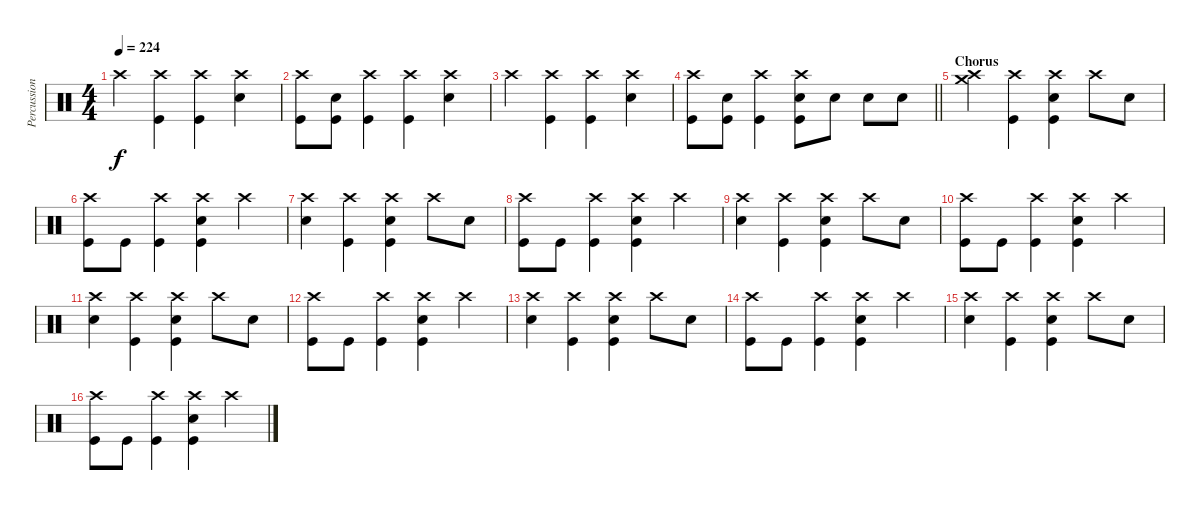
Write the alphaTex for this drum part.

\track ("Percussion" "Percussion") {instrument percussion}
\staff {score}
\articulation defaults
\ts (4 4)
\tempo 224
\clef neutral
\ks c "Crash high (hit)".4{dy f}
("Crash high (hit)" "Kick (hit)").4 ("Crash high (hit)" "Kick (hit)").4 ("Crash high (hit)" "Electric Snare (hit)").4 |
("Crash high (hit)" "Kick (hit)").8 ("Electric Snare (hit)" "Kick (hit)").8 ("Crash high (hit)" "Kick (hit)").4 ("Crash high (hit)" "Kick (hit)").4 ("Crash high (hit)" "Electric Snare (hit)").4 |
"Crash high (hit)".4 ("Crash high (hit)" "Kick (hit)").4 ("Crash high (hit)" "Kick (hit)").4 ("Crash high (hit)" "Electric Snare (hit)").4 |
\barLineRight lightlight
("Crash high (hit)" "Kick (hit)").8 ("Electric Snare (hit)" "Kick (hit)").8 ("Crash high (hit)" "Kick (hit)").4 ("Crash high (hit)" "Electric Snare (hit)" "Kick (hit)").8 "Electric Snare (hit)".8 "Electric Snare (hit)".8 "Electric Snare (hit)".8 |
\section ("" "Chorus")
("Crash high (hit)" "Crash medium (hit)").4 ("Crash high (hit)" "Kick (hit)").4 ("Crash high (hit)" "Electric Snare (hit)" "Kick (hit)").4 "Crash high (hit)".8 "Electric Snare (hit)".8 |
("Crash high (hit)" "Kick (hit)").8 "Kick (hit)".8 ("Crash high (hit)" "Kick (hit)").4 ("Crash high (hit)" "Electric Snare (hit)" "Kick (hit)").4 "Crash high (hit)".4 |
("Crash high (hit)" "Electric Snare (hit)").4 ("Crash high (hit)" "Kick (hit)").4 ("Crash high (hit)" "Electric Snare (hit)" "Kick (hit)").4 "Crash high (hit)".8 "Electric Snare (hit)".8 |
("Crash high (hit)" "Kick (hit)").8 "Kick (hit)".8 ("Crash high (hit)" "Kick (hit)").4 ("Crash high (hit)" "Electric Snare (hit)" "Kick (hit)").4 "Crash high (hit)".4 |
("Crash high (hit)" "Electric Snare (hit)").4 ("Crash high (hit)" "Kick (hit)").4 ("Crash high (hit)" "Electric Snare (hit)" "Kick (hit)").4 "Crash high (hit)".8 "Electric Snare (hit)".8 |
("Crash high (hit)" "Kick (hit)").8 "Kick (hit)".8 ("Crash high (hit)" "Kick (hit)").4 ("Crash high (hit)" "Electric Snare (hit)" "Kick (hit)").4 "Crash high (hit)".4 |
("Crash high (hit)" "Electric Snare (hit)").4 ("Crash high (hit)" "Kick (hit)").4 ("Crash high (hit)" "Electric Snare (hit)" "Kick (hit)").4 "Crash high (hit)".8 "Electric Snare (hit)".8 |
("Crash high (hit)" "Kick (hit)").8 "Kick (hit)".8 ("Crash high (hit)" "Kick (hit)").4 ("Crash high (hit)" "Electric Snare (hit)" "Kick (hit)").4 "Crash high (hit)".4 |
("Crash high (hit)" "Electric Snare (hit)").4 ("Crash high (hit)" "Kick (hit)").4 ("Crash high (hit)" "Electric Snare (hit)" "Kick (hit)").4 "Crash high (hit)".8 "Electric Snare (hit)".8 |
("Crash high (hit)" "Kick (hit)").8 "Kick (hit)".8 ("Crash high (hit)" "Kick (hit)").4 ("Crash high (hit)" "Electric Snare (hit)" "Kick (hit)").4 "Crash high (hit)".4 |
("Crash high (hit)" "Electric Snare (hit)").4 ("Crash high (hit)" "Kick (hit)").4 ("Crash high (hit)" "Electric Snare (hit)" "Kick (hit)").4 "Crash high (hit)".8 "Electric Snare (hit)".8 |
("Crash high (hit)" "Kick (hit)").8 "Kick (hit)".8 ("Crash high (hit)" "Kick (hit)").4 ("Crash high (hit)" "Electric Snare (hit)" "Kick (hit)").4 "Crash high (hit)".4
